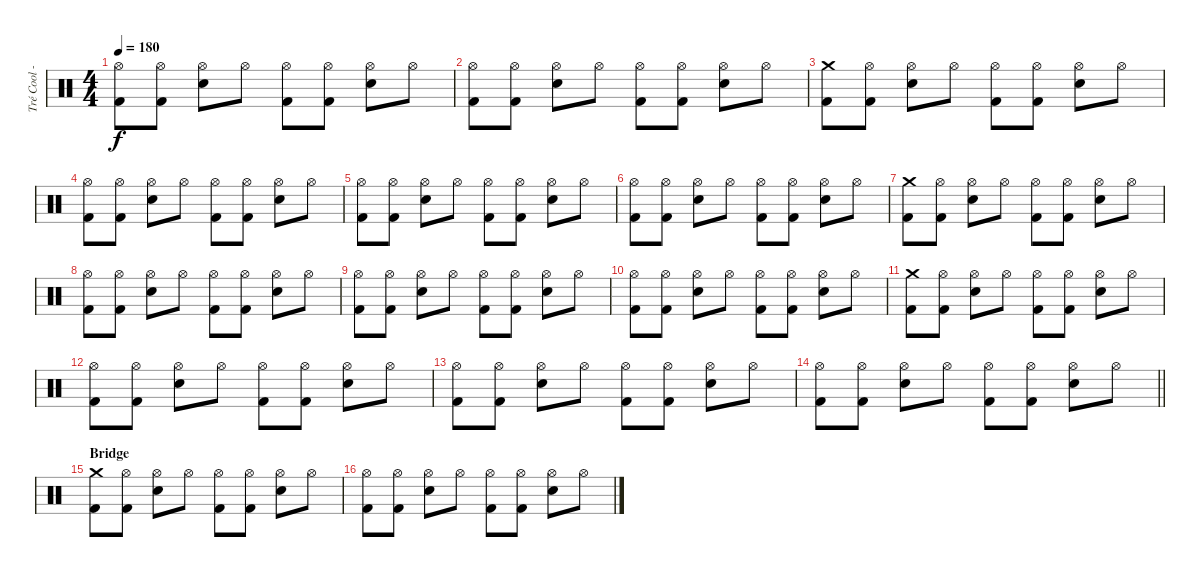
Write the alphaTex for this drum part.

\track ("Tré Cool - Drums" "Tré Cool -") {instrument percussion}
\staff {score}
\articulation defaults
\ts (4 4)
\tempo 180
\clef neutral
\ks c
("Hi-Hat (open)" "Kick (hit) 2").8{dy f} ("Hi-Hat (open)" "Kick (hit) 2").8 ("Hi-Hat (open)" "Electric Snare (hit)").8 "Hi-Hat (open)".8 ("Hi-Hat (open)" "Kick (hit) 2").8 ("Hi-Hat (open)" "Kick (hit) 2").8 ("Hi-Hat (open)" "Electric Snare (hit)").8 "Hi-Hat (open)".8 |
("Hi-Hat (open)" "Kick (hit) 2").8 ("Hi-Hat (open)" "Kick (hit) 2").8 ("Hi-Hat (open)" "Electric Snare (hit)").8 "Hi-Hat (open)".8 ("Hi-Hat (open)" "Kick (hit) 2").8 ("Hi-Hat (open)" "Kick (hit) 2").8 ("Hi-Hat (open)" "Electric Snare (hit)").8 "Hi-Hat (open)".8 |
("Crash medium (hit)" "Kick (hit) 2").8 ("Hi-Hat (open)" "Kick (hit) 2").8 ("Hi-Hat (open)" "Electric Snare (hit)").8 "Hi-Hat (open)".8 ("Hi-Hat (open)" "Kick (hit) 2").8 ("Hi-Hat (open)" "Kick (hit) 2").8 ("Hi-Hat (open)" "Electric Snare (hit)").8 "Hi-Hat (open)".8 |
("Hi-Hat (open)" "Kick (hit) 2").8 ("Hi-Hat (open)" "Kick (hit) 2").8 ("Hi-Hat (open)" "Electric Snare (hit)").8 "Hi-Hat (open)".8 ("Hi-Hat (open)" "Kick (hit) 2").8 ("Hi-Hat (open)" "Kick (hit) 2").8 ("Hi-Hat (open)" "Electric Snare (hit)").8 "Hi-Hat (open)".8 |
("Hi-Hat (open)" "Kick (hit) 2").8 ("Hi-Hat (open)" "Kick (hit) 2").8 ("Hi-Hat (open)" "Electric Snare (hit)").8 "Hi-Hat (open)".8 ("Hi-Hat (open)" "Kick (hit) 2").8 ("Hi-Hat (open)" "Kick (hit) 2").8 ("Hi-Hat (open)" "Electric Snare (hit)").8 "Hi-Hat (open)".8 |
("Hi-Hat (open)" "Kick (hit) 2").8 ("Hi-Hat (open)" "Kick (hit) 2").8 ("Hi-Hat (open)" "Electric Snare (hit)").8 "Hi-Hat (open)".8 ("Hi-Hat (open)" "Kick (hit) 2").8 ("Hi-Hat (open)" "Kick (hit) 2").8 ("Hi-Hat (open)" "Electric Snare (hit)").8 "Hi-Hat (open)".8 |
("Crash medium (hit)" "Kick (hit) 2").8 ("Hi-Hat (open)" "Kick (hit) 2").8 ("Hi-Hat (open)" "Electric Snare (hit)").8 "Hi-Hat (open)".8 ("Hi-Hat (open)" "Kick (hit) 2").8 ("Hi-Hat (open)" "Kick (hit) 2").8 ("Hi-Hat (open)" "Electric Snare (hit)").8 "Hi-Hat (open)".8 |
("Hi-Hat (open)" "Kick (hit) 2").8 ("Hi-Hat (open)" "Kick (hit) 2").8 ("Hi-Hat (open)" "Electric Snare (hit)").8 "Hi-Hat (open)".8 ("Hi-Hat (open)" "Kick (hit) 2").8 ("Hi-Hat (open)" "Kick (hit) 2").8 ("Hi-Hat (open)" "Electric Snare (hit)").8 "Hi-Hat (open)".8 |
("Hi-Hat (open)" "Kick (hit) 2").8 ("Hi-Hat (open)" "Kick (hit) 2").8 ("Hi-Hat (open)" "Electric Snare (hit)").8 "Hi-Hat (open)".8 ("Hi-Hat (open)" "Kick (hit) 2").8 ("Hi-Hat (open)" "Kick (hit) 2").8 ("Hi-Hat (open)" "Electric Snare (hit)").8 "Hi-Hat (open)".8 |
("Hi-Hat (open)" "Kick (hit) 2").8 ("Hi-Hat (open)" "Kick (hit) 2").8 ("Hi-Hat (open)" "Electric Snare (hit)").8 "Hi-Hat (open)".8 ("Hi-Hat (open)" "Kick (hit) 2").8 ("Hi-Hat (open)" "Kick (hit) 2").8 ("Hi-Hat (open)" "Electric Snare (hit)").8 "Hi-Hat (open)".8 |
("Crash medium (hit)" "Kick (hit) 2").8 ("Hi-Hat (open)" "Kick (hit) 2").8 ("Hi-Hat (open)" "Electric Snare (hit)").8 "Hi-Hat (open)".8 ("Hi-Hat (open)" "Kick (hit) 2").8 ("Hi-Hat (open)" "Kick (hit) 2").8 ("Hi-Hat (open)" "Electric Snare (hit)").8 "Hi-Hat (open)".8 |
("Hi-Hat (open)" "Kick (hit) 2").8 ("Hi-Hat (open)" "Kick (hit) 2").8 ("Hi-Hat (open)" "Electric Snare (hit)").8 "Hi-Hat (open)".8 ("Hi-Hat (open)" "Kick (hit) 2").8 ("Hi-Hat (open)" "Kick (hit) 2").8 ("Hi-Hat (open)" "Electric Snare (hit)").8 "Hi-Hat (open)".8 |
("Hi-Hat (open)" "Kick (hit) 2").8 ("Hi-Hat (open)" "Kick (hit) 2").8 ("Hi-Hat (open)" "Electric Snare (hit)").8 "Hi-Hat (open)".8 ("Hi-Hat (open)" "Kick (hit) 2").8 ("Hi-Hat (open)" "Kick (hit) 2").8 ("Hi-Hat (open)" "Electric Snare (hit)").8 "Hi-Hat (open)".8 |
\barLineRight lightlight
("Hi-Hat (open)" "Kick (hit) 2").8 ("Hi-Hat (open)" "Kick (hit) 2").8 ("Hi-Hat (open)" "Electric Snare (hit)").8 "Hi-Hat (open)".8 ("Hi-Hat (open)" "Kick (hit) 2").8 ("Hi-Hat (open)" "Kick (hit) 2").8 ("Hi-Hat (open)" "Electric Snare (hit)").8 "Hi-Hat (open)".8 |
\section ("" "Bridge")
("Crash medium (hit)" "Kick (hit) 2").8 ("Hi-Hat (open)" "Kick (hit) 2").8 ("Hi-Hat (open)" "Electric Snare (hit)").8 "Hi-Hat (open)".8 ("Hi-Hat (open)" "Kick (hit) 2").8 ("Hi-Hat (open)" "Kick (hit) 2").8 ("Hi-Hat (open)" "Electric Snare (hit)").8 "Hi-Hat (open)".8 |
("Hi-Hat (open)" "Kick (hit) 2").8 ("Hi-Hat (open)" "Kick (hit) 2").8 ("Hi-Hat (open)" "Electric Snare (hit)").8 "Hi-Hat (open)".8 ("Hi-Hat (open)" "Kick (hit) 2").8 ("Hi-Hat (open)" "Kick (hit) 2").8 ("Hi-Hat (open)" "Electric Snare (hit)").8 "Hi-Hat (open)".8
